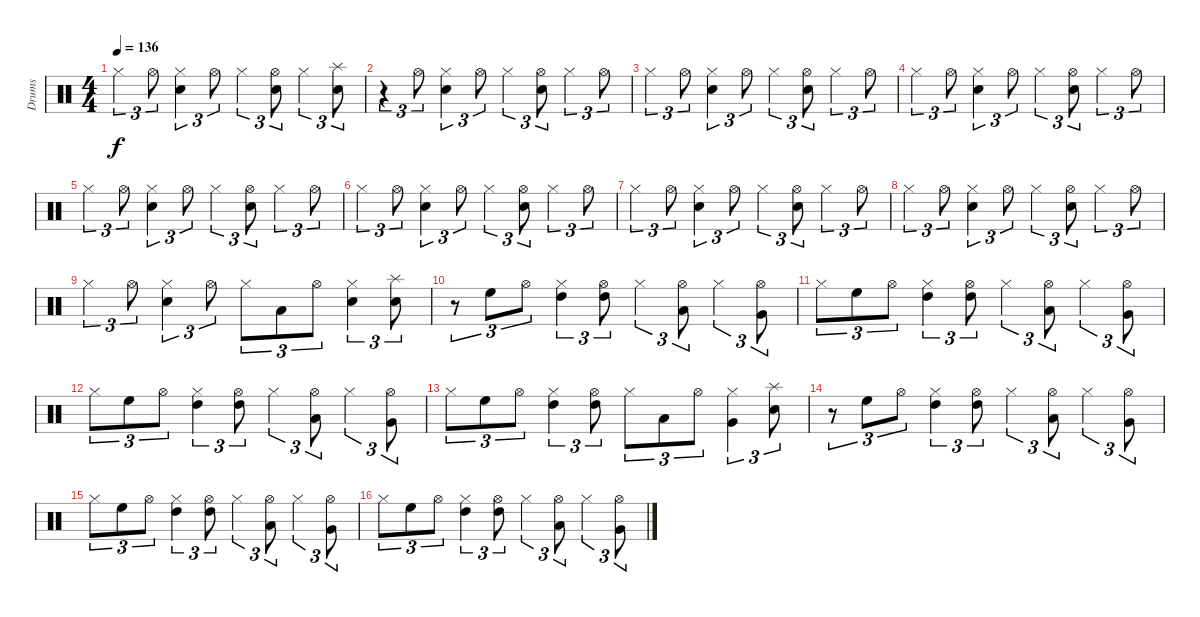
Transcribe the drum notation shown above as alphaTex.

\track ("Drums" "Drums") {instrument percussion}
\staff {score}
\articulation defaults
\ts (4 4)
\tempo 136
\clef neutral
\ks c "Hi-Hat (closed)".4{tu (3 2) dy f} "Hi-Hat (open)".8{tu (3 2)}
("Hi-Hat (closed)" "Snare (hit) 2").4{tu (3 2)} "Hi-Hat (open)".8{tu (3 2)} "Hi-Hat (closed)".4{tu (3 2)} ("Hi-Hat (open)" "Snare (hit) 2").8{tu (3 2)} "Hi-Hat (closed)".4{tu (3 2)} ("Splash (hit)" "Snare (hit) 2").8{tu (3 2)} |
r.4{tu (3 2)} "Hi-Hat (open)".8{tu (3 2)} ("Hi-Hat (closed)" "Snare (hit) 2").4{tu (3 2)} "Hi-Hat (open)".8{tu (3 2)} "Hi-Hat (closed)".4{tu (3 2)} ("Hi-Hat (open)" "Snare (hit) 2").8{tu (3 2)} "Hi-Hat (closed)".4{tu (3 2)} "Hi-Hat (open)".8{tu (3 2)} |
"Hi-Hat (closed)".4{tu (3 2)} "Hi-Hat (open)".8{tu (3 2)} ("Hi-Hat (closed)" "Snare (hit) 2").4{tu (3 2)} "Hi-Hat (open)".8{tu (3 2)} "Hi-Hat (closed)".4{tu (3 2)} ("Hi-Hat (open)" "Snare (hit) 2").8{tu (3 2)} "Hi-Hat (closed)".4{tu (3 2)} "Hi-Hat (open)".8{tu (3 2)} |
"Hi-Hat (closed)".4{tu (3 2)} "Hi-Hat (open)".8{tu (3 2)} ("Hi-Hat (closed)" "Snare (hit) 2").4{tu (3 2)} "Hi-Hat (open)".8{tu (3 2)} "Hi-Hat (closed)".4{tu (3 2)} ("Hi-Hat (open)" "Snare (hit) 2").8{tu (3 2)} "Hi-Hat (closed)".4{tu (3 2)} "Hi-Hat (open)".8{tu (3 2)} |
"Hi-Hat (closed)".4{tu (3 2)} "Hi-Hat (open)".8{tu (3 2)} ("Hi-Hat (closed)" "Snare (hit) 2").4{tu (3 2)} "Hi-Hat (open)".8{tu (3 2)} "Hi-Hat (closed)".4{tu (3 2)} ("Hi-Hat (open)" "Snare (hit) 2").8{tu (3 2)} "Hi-Hat (closed)".4{tu (3 2)} "Hi-Hat (open)".8{tu (3 2)} |
"Hi-Hat (closed)".4{tu (3 2)} "Hi-Hat (open)".8{tu (3 2)} ("Hi-Hat (closed)" "Snare (hit) 2").4{tu (3 2)} "Hi-Hat (open)".8{tu (3 2)} "Hi-Hat (closed)".4{tu (3 2)} ("Hi-Hat (open)" "Snare (hit) 2").8{tu (3 2)} "Hi-Hat (closed)".4{tu (3 2)} "Hi-Hat (open)".8{tu (3 2)} |
"Hi-Hat (closed)".4{tu (3 2)} "Hi-Hat (open)".8{tu (3 2)} ("Hi-Hat (closed)" "Snare (hit) 2").4{tu (3 2)} "Hi-Hat (open)".8{tu (3 2)} "Hi-Hat (closed)".4{tu (3 2)} ("Hi-Hat (open)" "Snare (hit) 2").8{tu (3 2)} "Hi-Hat (closed)".4{tu (3 2)} "Hi-Hat (open)".8{tu (3 2)} |
"Hi-Hat (closed)".4{tu (3 2)} "Hi-Hat (open)".8{tu (3 2)} ("Hi-Hat (closed)" "Snare (hit) 2").4{tu (3 2)} "Hi-Hat (open)".8{tu (3 2)} "Hi-Hat (closed)".4{tu (3 2)} ("Hi-Hat (open)" "Snare (hit) 2").8{tu (3 2)} "Hi-Hat (closed)".4{tu (3 2)} "Hi-Hat (open)".8{tu (3 2)} |
"Hi-Hat (closed)".4{tu (3 2)} "Hi-Hat (open)".8{tu (3 2)} ("Hi-Hat (closed)" "Snare (hit) 2").4{tu (3 2)} "Hi-Hat (open)".8{tu (3 2)} "Hi-Hat (closed)".8{tu (3 2)} "Low Tom (hit)".8{tu (3 2)} "Hi-Hat (open)".8{tu (3 2)} ("Hi-Hat (closed)" "Snare (hit) 2").4{tu (3 2)} ("Splash (hit)" "Snare (hit) 2").8{tu (3 2)} |
r.8{tu (3 2)} "High Floor Tom (hit)".8{tu (3 2)} "Hi-Hat (open)".8{tu (3 2)} ("Hi-Hat (closed)" "High Tom (hit)").4{tu (3 2)} ("Hi-Hat (open)" "High Tom (hit)").8{tu (3 2)} "Hi-Hat (closed)".4{tu (3 2)} ("Hi-Hat (open)" "Low Tom (hit)").8{tu (3 2)} "Hi-Hat (closed)".4{tu (3 2)} ("Hi-Hat (open)" "Very Low Tom (hit)").8{tu (3 2)} |
"Hi-Hat (closed)".8{tu (3 2)} "High Floor Tom (hit)".8{tu (3 2)} "Hi-Hat (open)".8{tu (3 2)} ("Hi-Hat (closed)" "High Tom (hit)").4{tu (3 2)} ("Hi-Hat (open)" "High Tom (hit)").8{tu (3 2)} "Hi-Hat (closed)".4{tu (3 2)} ("Hi-Hat (open)" "Low Tom (hit)").8{tu (3 2)} "Hi-Hat (closed)".4{tu (3 2)} ("Hi-Hat (open)" "Very Low Tom (hit)").8{tu (3 2)} |
"Hi-Hat (closed)".8{tu (3 2)} "High Floor Tom (hit)".8{tu (3 2)} "Hi-Hat (open)".8{tu (3 2)} ("Hi-Hat (closed)" "High Tom (hit)").4{tu (3 2)} ("Hi-Hat (open)" "High Tom (hit)").8{tu (3 2)} "Hi-Hat (closed)".4{tu (3 2)} ("Hi-Hat (open)" "Low Tom (hit)").8{tu (3 2)} "Hi-Hat (closed)".4{tu (3 2)} ("Hi-Hat (open)" "Very Low Tom (hit)").8{tu (3 2)} |
"Hi-Hat (closed)".8{tu (3 2)} "High Floor Tom (hit)".8{tu (3 2)} "Hi-Hat (open)".8{tu (3 2)} ("Hi-Hat (closed)" "High Tom (hit)").4{tu (3 2)} ("Hi-Hat (open)" "High Tom (hit)").8{tu (3 2)} "Hi-Hat (closed)".8{tu (3 2)} "Low Tom (hit)".8{tu (3 2)} "Hi-Hat (open)".8{tu (3 2)} ("Hi-Hat (closed)" "Very Low Tom (hit)").4{tu (3 2)} ("Splash (hit)" "Snare (hit) 2").8{tu (3 2)} |
r.8{tu (3 2)} "High Floor Tom (hit)".8{tu (3 2)} "Hi-Hat (open)".8{tu (3 2)} ("Hi-Hat (closed)" "High Tom (hit)").4{tu (3 2)} ("Hi-Hat (open)" "High Tom (hit)").8{tu (3 2)} "Hi-Hat (closed)".4{tu (3 2)} ("Hi-Hat (open)" "Low Tom (hit)").8{tu (3 2)} "Hi-Hat (closed)".4{tu (3 2)} ("Hi-Hat (open)" "Very Low Tom (hit)").8{tu (3 2)} |
"Hi-Hat (closed)".8{tu (3 2)} "High Floor Tom (hit)".8{tu (3 2)} "Hi-Hat (open)".8{tu (3 2)} ("Hi-Hat (closed)" "High Tom (hit)").4{tu (3 2)} ("Hi-Hat (open)" "High Tom (hit)").8{tu (3 2)} "Hi-Hat (closed)".4{tu (3 2)} ("Hi-Hat (open)" "Low Tom (hit)").8{tu (3 2)} "Hi-Hat (closed)".4{tu (3 2)} ("Hi-Hat (open)" "Very Low Tom (hit)").8{tu (3 2)} |
"Hi-Hat (closed)".8{tu (3 2)} "High Floor Tom (hit)".8{tu (3 2)} "Hi-Hat (open)".8{tu (3 2)} ("Hi-Hat (closed)" "High Tom (hit)").4{tu (3 2)} ("Hi-Hat (open)" "High Tom (hit)").8{tu (3 2)} "Hi-Hat (closed)".4{tu (3 2)} ("Hi-Hat (open)" "Low Tom (hit)").8{tu (3 2)} "Hi-Hat (closed)".4{tu (3 2)} ("Hi-Hat (open)" "Very Low Tom (hit)").8{tu (3 2)}
